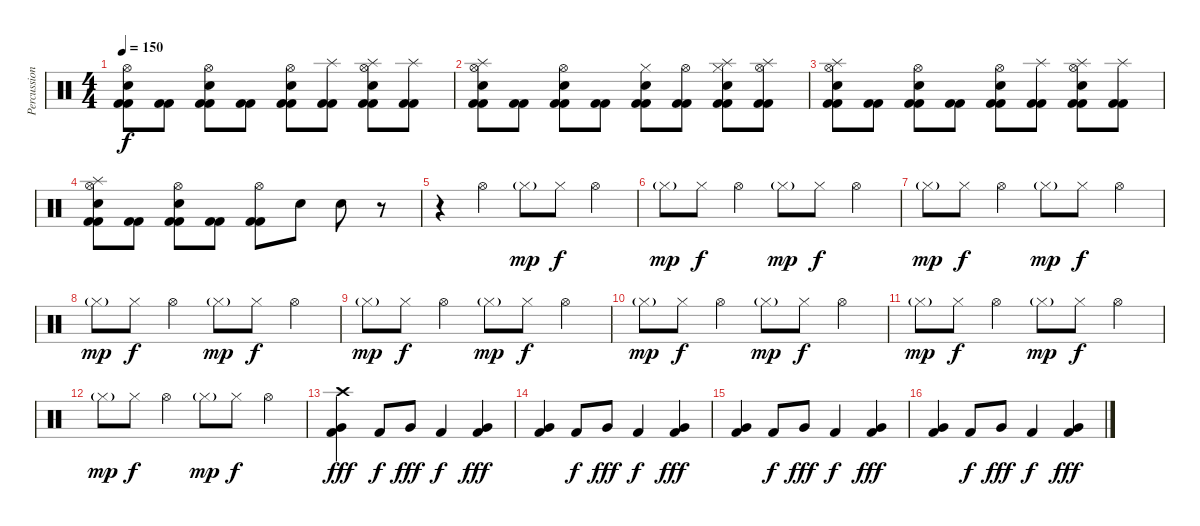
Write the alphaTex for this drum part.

\track ("Percussions" "Percussion") {instrument percussion}
\staff {score}
\articulation defaults
\ts (4 4)
\tempo 150
\clef neutral
\ks c
("Kick (hit) 2" "Kick (hit) 2" "Electric Snare (hit)" "Hi-Hat (open)").8{dy f} ("Kick (hit) 2" "Kick (hit) 2").8 ("Kick (hit) 2" "Kick (hit) 2" "Electric Snare (hit)" "Hi-Hat (open)").8 ("Kick (hit) 2" "Kick (hit) 2").8 ("Kick (hit) 2" "Kick (hit) 2" "Electric Snare (hit)" "Hi-Hat (open)").8 ("Kick (hit) 2" "Kick (hit) 2" "Splash (hit)").8 ("Kick (hit) 2" "Kick (hit) 2" "Electric Snare (hit)" "Splash (hit)" "Hi-Hat (open)").8 ("Kick (hit) 2" "Kick (hit) 2" "Splash (hit)").8 |
("Kick (hit) 2" "Kick (hit) 2" "Electric Snare (hit)" "Splash (hit)" "Hi-Hat (open)").8 ("Kick (hit) 2" "Kick (hit) 2").8 ("Kick (hit) 2" "Kick (hit) 2" "Electric Snare (hit)" "Hi-Hat (open)").8 ("Kick (hit) 2" "Kick (hit) 2").8 ("Kick (hit) 2" "Kick (hit) 2" "Electric Snare (hit)" "Hi-Hat (closed)").8 ("Kick (hit) 2" "Kick (hit) 2" "Hi-Hat (open)").8 ("Kick (hit) 2" "Kick (hit) 2" "Electric Snare (hit)" "Splash (hit)" "Hi-Hat (closed)").8 ("Kick (hit) 2" "Kick (hit) 2" "Splash (hit)" "Hi-Hat (open)").8 |
("Kick (hit) 2" "Kick (hit) 2" "Electric Snare (hit)" "Splash (hit)" "Hi-Hat (open)").8 ("Kick (hit) 2" "Kick (hit) 2").8 ("Kick (hit) 2" "Kick (hit) 2" "Electric Snare (hit)" "Hi-Hat (open)").8 ("Kick (hit) 2" "Kick (hit) 2").8 ("Kick (hit) 2" "Kick (hit) 2" "Electric Snare (hit)" "Hi-Hat (open)").8 ("Kick (hit) 2" "Kick (hit) 2" "Splash (hit)").8 ("Kick (hit) 2" "Kick (hit) 2" "Electric Snare (hit)" "Splash (hit)" "Hi-Hat (open)").8 ("Kick (hit) 2" "Kick (hit) 2" "Splash (hit)").8 |
("Kick (hit) 2" "Kick (hit) 2" "Electric Snare (hit)" "Splash (hit)" "Hi-Hat (open)").8 ("Kick (hit) 2" "Kick (hit) 2").8 ("Kick (hit) 2" "Kick (hit) 2" "Electric Snare (hit)" "Hi-Hat (open)").8 ("Kick (hit) 2" "Kick (hit) 2").8 ("Kick (hit) 2" "Kick (hit) 2" "Hi-Hat (open)").8 "Electric Snare (hit)".8 "Electric Snare (hit)".8 r.8 |
r.4 "Hi-Hat (open)".4 "Hi-Hat (closed)"{g}.8{dy mp} "Hi-Hat (closed)".8{dy f} "Hi-Hat (open)".4 |
"Hi-Hat (closed)"{g}.8{dy mp} "Hi-Hat (closed)".8{dy f} "Hi-Hat (open)".4 "Hi-Hat (closed)"{g}.8{dy mp} "Hi-Hat (closed)".8{dy f} "Hi-Hat (open)".4 |
"Hi-Hat (closed)"{g}.8{dy mp} "Hi-Hat (closed)".8{dy f} "Hi-Hat (open)".4 "Hi-Hat (closed)"{g}.8{dy mp} "Hi-Hat (closed)".8{dy f} "Hi-Hat (open)".4 |
"Hi-Hat (closed)"{g}.8{dy mp} "Hi-Hat (closed)".8{dy f} "Hi-Hat (open)".4 "Hi-Hat (closed)"{g}.8{dy mp} "Hi-Hat (closed)".8{dy f} "Hi-Hat (open)".4 |
"Hi-Hat (closed)"{g}.8{dy mp} "Hi-Hat (closed)".8{dy f} "Hi-Hat (open)".4 "Hi-Hat (closed)"{g}.8{dy mp} "Hi-Hat (closed)".8{dy f} "Hi-Hat (open)".4 |
"Hi-Hat (closed)"{g}.8{dy mp} "Hi-Hat (closed)".8{dy f} "Hi-Hat (open)".4 "Hi-Hat (closed)"{g}.8{dy mp} "Hi-Hat (closed)".8{dy f} "Hi-Hat (open)".4 |
"Hi-Hat (closed)"{g}.8{dy mp} "Hi-Hat (closed)".8{dy f} "Hi-Hat (open)".4 "Hi-Hat (closed)"{g}.8{dy mp} "Hi-Hat (closed)".8{dy f} "Hi-Hat (open)".4 |
"Hi-Hat (closed)"{g}.8{dy mp} "Hi-Hat (closed)".8{dy f} "Hi-Hat (open)".4 "Hi-Hat (closed)"{g}.8{dy mp} "Hi-Hat (closed)".8{dy f} "Hi-Hat (open)".4 |
("Kick (hit) 2" "Very Low Tom (hit)" "Crash high (hit)").4{dy fff} "Kick (hit) 2".8{dy f} "Very Low Tom (hit)".8{dy fff} "Kick (hit) 2".4{dy f} ("Kick (hit) 2" "Very Low Tom (hit)").4{dy fff} |
("Kick (hit) 2" "Very Low Tom (hit)").4 "Kick (hit) 2".8{dy f} "Very Low Tom (hit)".8{dy fff} "Kick (hit) 2".4{dy f} ("Kick (hit) 2" "Very Low Tom (hit)").4{dy fff} |
("Kick (hit) 2" "Very Low Tom (hit)").4 "Kick (hit) 2".8{dy f} "Very Low Tom (hit)".8{dy fff} "Kick (hit) 2".4{dy f} ("Kick (hit) 2" "Very Low Tom (hit)").4{dy fff} |
("Kick (hit) 2" "Very Low Tom (hit)").4 "Kick (hit) 2".8{dy f} "Very Low Tom (hit)".8{dy fff} "Kick (hit) 2".4{dy f} ("Kick (hit) 2" "Very Low Tom (hit)").4{dy fff}
